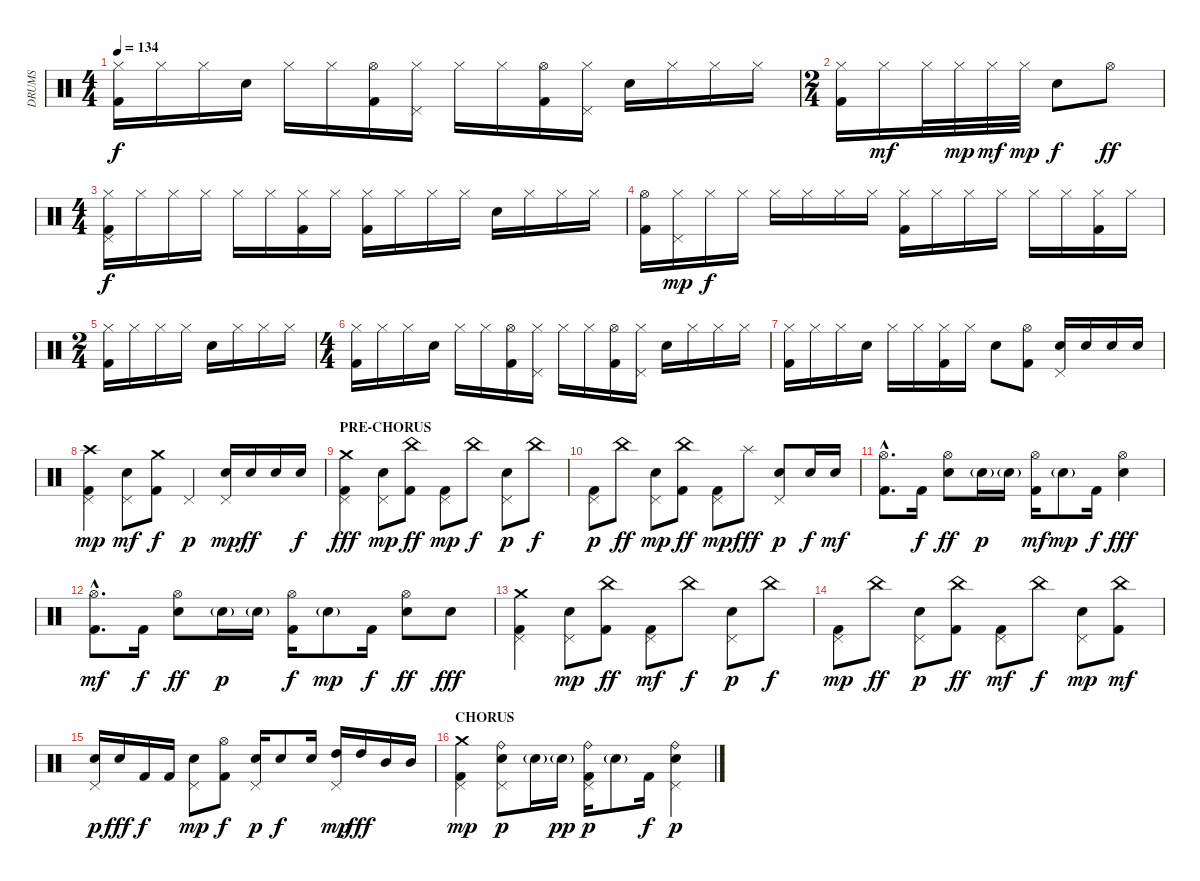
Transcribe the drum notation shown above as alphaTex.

\track ("DRUMS" "DRUMS") {instrument percussion}
\staff {score}
\articulation defaults
\ts (4 4)
\tempo 134
\clef neutral
\ks c
("Hi-Hat (closed)" "Kick (hit) 2").16{dy f} "Hi-Hat (closed)".16 "Hi-Hat (closed)".16 "Electric Snare (hit)".16 "Hi-Hat (closed)".16 "Hi-Hat (closed)".16 ("Hi-Hat (open)" "Kick (hit) 2").16 ("Hi-Hat (closed)" "Pedal Hi-Hat (hit)").16 "Hi-Hat (closed)".16 "Hi-Hat (closed)".16 ("Hi-Hat (open)" "Kick (hit) 2").16 ("Hi-Hat (closed)" "Pedal Hi-Hat (hit)").16 "Electric Snare (hit)".16 "Hi-Hat (closed)".16 "Hi-Hat (closed)".16 "Hi-Hat (closed)".16 |
\ts (2 4)
("Hi-Hat (closed)" "Kick (hit) 2").16 "Hi-Hat (closed)".16{dy mf} "Hi-Hat (closed)".32 "Hi-Hat (closed)".32{dy mp} "Hi-Hat (closed)".32{dy mf} "Hi-Hat (closed)".32{dy mp} "Electric Snare (hit)".8{dy f} "Hi-Hat (open)".8{dy ff} |
\ts (4 4)
("Hi-Hat (closed)" "Pedal Hi-Hat (hit)" "Kick (hit) 2").16{dy f} "Hi-Hat (closed)".16 "Hi-Hat (closed)".16 "Hi-Hat (closed)".16 "Hi-Hat (closed)".16 "Hi-Hat (closed)".16 ("Hi-Hat (closed)" "Kick (hit) 2").16 "Hi-Hat (closed)".16 ("Hi-Hat (closed)" "Kick (hit) 2").16 "Hi-Hat (closed)".16 "Hi-Hat (closed)".16 "Hi-Hat (closed)".16 "Electric Snare (hit)".16 "Hi-Hat (closed)".16 "Hi-Hat (closed)".16 "Hi-Hat (closed)".16 |
("Hi-Hat (open)" "Kick (hit) 2").16 ("Hi-Hat (closed)" "Pedal Hi-Hat (hit)").16{dy mp} "Hi-Hat (closed)".16{dy f} "Hi-Hat (closed)".16 "Hi-Hat (closed)".16 "Hi-Hat (closed)".16 "Hi-Hat (closed)".16 "Hi-Hat (closed)".16 ("Hi-Hat (closed)" "Kick (hit) 2").16 "Hi-Hat (closed)".16 "Hi-Hat (closed)".16 "Hi-Hat (closed)".16 "Hi-Hat (closed)".16 "Hi-Hat (closed)".16 ("Hi-Hat (closed)" "Kick (hit) 2").16 "Hi-Hat (closed)".16 |
\ts (2 4)
("Hi-Hat (closed)" "Kick (hit) 2").16 "Hi-Hat (closed)".16 "Hi-Hat (closed)".16 "Hi-Hat (closed)".16 "Electric Snare (hit)".16 "Hi-Hat (closed)".16 "Hi-Hat (closed)".16 "Hi-Hat (closed)".16 |
\ts (4 4)
("Hi-Hat (closed)" "Kick (hit) 2").16 "Hi-Hat (closed)".16 "Hi-Hat (closed)".16 "Electric Snare (hit)".16 "Hi-Hat (closed)".16 "Hi-Hat (closed)".16 ("Hi-Hat (open)" "Kick (hit) 2").16 ("Hi-Hat (closed)" "Pedal Hi-Hat (hit)").16 "Hi-Hat (closed)".16 "Hi-Hat (closed)".16 ("Hi-Hat (open)" "Kick (hit) 2").16 ("Hi-Hat (closed)" "Pedal Hi-Hat (hit)").16 "Electric Snare (hit)".16 "Hi-Hat (closed)".16 "Hi-Hat (closed)".16 "Hi-Hat (closed)".16 |
("Hi-Hat (closed)" "Kick (hit) 2").16 "Hi-Hat (closed)".16 "Hi-Hat (closed)".16 "Electric Snare (hit)".16 "Hi-Hat (closed)".16 "Hi-Hat (closed)".16 ("Hi-Hat (closed)" "Kick (hit) 2").16 "Hi-Hat (closed)".16 "Electric Snare (hit)".8 ("Hi-Hat (open)" "Kick (hit) 2").8 ("Electric Snare (hit)" "Pedal Hi-Hat (hit)").16 "Electric Snare (hit)".16 "Electric Snare (hit)".16 "Electric Snare (hit)".16 |
("Crash high (hit)" "Pedal Hi-Hat (hit)" "Kick (hit) 2").4{dy mp} ("Electric Snare (hit)" "Pedal Hi-Hat (hit)").8{dy mf} ("Crash medium (hit)" "Kick (hit) 2").8{dy f} "Pedal Hi-Hat (hit)".4{dy p} ("Electric Snare (hit)" "Pedal Hi-Hat (hit)").16{dy mp} "Electric Snare (hit)".16{dy ff} "Electric Snare (hit)".16 "Electric Snare (hit)".16{dy f} |
\section ("" "PRE-CHORUS")
("Crash medium (hit)" "Pedal Hi-Hat (hit)" "Kick (hit) 2").4{dy fff} ("Electric Snare (hit)" "Pedal Hi-Hat (hit)").8{dy mp} ("China (hit)" "Kick (hit) 2").8{dy ff} ("Pedal Hi-Hat (hit)" "Kick (hit) 2").8{dy mp} "China (hit)".8{dy f} ("Electric Snare (hit)" "Pedal Hi-Hat (hit)").8{dy p} "China (hit)".8{dy f} |
("Pedal Hi-Hat (hit)" "Kick (hit) 2").8{dy p} "China (hit)".8{dy ff} ("Electric Snare (hit)" "Pedal Hi-Hat (hit)").8{dy mp} ("China (hit)" "Kick (hit) 2").8{dy ff} ("Pedal Hi-Hat (hit)" "Kick (hit) 2").8{dy mp} "Splash (hit)".8{dy fff} ("Electric Snare (hit)" "Pedal Hi-Hat (hit)").8{dy p} "Electric Snare (hit)".16{dy f} "Electric Snare (hit)".16{dy mf} |
("Hi-Hat (open)"{hac} "Kick (hit) 2"{hac}).8{d} "Kick (hit) 2".16{dy f} ("Hi-Hat (open)" "Electric Snare (hit)").8{dy ff} "Electric Snare (hit)"{g}.16{dy p} "Electric Snare (hit)"{g}.16 ("Hi-Hat (open)" "Kick (hit) 2").16{dy mf} "Electric Snare (hit)"{g}.8{dy mp} "Kick (hit) 2".16{dy f} ("Hi-Hat (open)" "Electric Snare (hit)").4{dy fff} |
("Hi-Hat (open)"{hac} "Kick (hit) 2"{hac}).8{d dy mf} "Kick (hit) 2".16{dy f} ("Hi-Hat (open)" "Electric Snare (hit)").8{dy ff} "Electric Snare (hit)"{g}.16{dy p} "Electric Snare (hit)"{g}.16 ("Hi-Hat (open)" "Kick (hit) 2").16{dy f} "Electric Snare (hit)"{g}.8{dy mp} "Kick (hit) 2".16{dy f} ("Hi-Hat (open)" "Electric Snare (hit)").8{dy ff} "Electric Snare (hit)".8{dy fff} |
("Crash medium (hit)" "Pedal Hi-Hat (hit)" "Kick (hit) 2").4 ("Electric Snare (hit)" "Pedal Hi-Hat (hit)").8{dy mp} ("China (hit)" "Kick (hit) 2").8{dy ff} ("Pedal Hi-Hat (hit)" "Kick (hit) 2").8{dy mf} "China (hit)".8{dy f} ("Electric Snare (hit)" "Pedal Hi-Hat (hit)").8{dy p} "China (hit)".8{dy f} |
("Pedal Hi-Hat (hit)" "Kick (hit) 2").8{dy mp} "China (hit)".8{dy ff} ("Electric Snare (hit)" "Pedal Hi-Hat (hit)").8{dy p} ("China (hit)" "Kick (hit) 2").8{dy ff} ("Pedal Hi-Hat (hit)" "Kick (hit) 2").8{dy mf} "China (hit)".8{dy f} ("Electric Snare (hit)" "Pedal Hi-Hat (hit)").8{dy mp} ("China (hit)" "Kick (hit) 2").8{dy mf} |
("Electric Snare (hit)" "Pedal Hi-Hat (hit)").16{dy p} "Electric Snare (hit)".16{dy fff} "Kick (hit) 2".16{dy f} "Kick (hit) 2".16 ("Electric Snare (hit)" "Pedal Hi-Hat (hit)").8{dy mp} ("Hi-Hat (open)" "Kick (hit) 2").8{dy f} ("Electric Snare (hit)" "Pedal Hi-Hat (hit)").16{dy p} "Electric Snare (hit)".8{dy f} "Electric Snare (hit)".16 ("High Tom (hit)" "Pedal Hi-Hat (hit)").16{dy mp} "High Tom (hit)".16{dy fff} "Mid Tom (hit)".16 "Mid Tom (hit)".16 |
\section ("" "CHORUS")
("Crash medium (hit)" "Pedal Hi-Hat (hit)" "Kick (hit) 2").4{dy mp} ("Ride (bell)" "Electric Snare (hit)" "Pedal Hi-Hat (hit)").8{dy p} "Electric Snare (hit)"{g}.16 "Electric Snare (hit)"{g}.16{dy pp} ("Ride (bell)" "Pedal Hi-Hat (hit)" "Kick (hit) 2").16{dy p} "Electric Snare (hit)"{g}.8 "Kick (hit) 2".16{dy f} ("Ride (bell)" "Electric Snare (hit)" "Pedal Hi-Hat (hit)").4{dy p}
